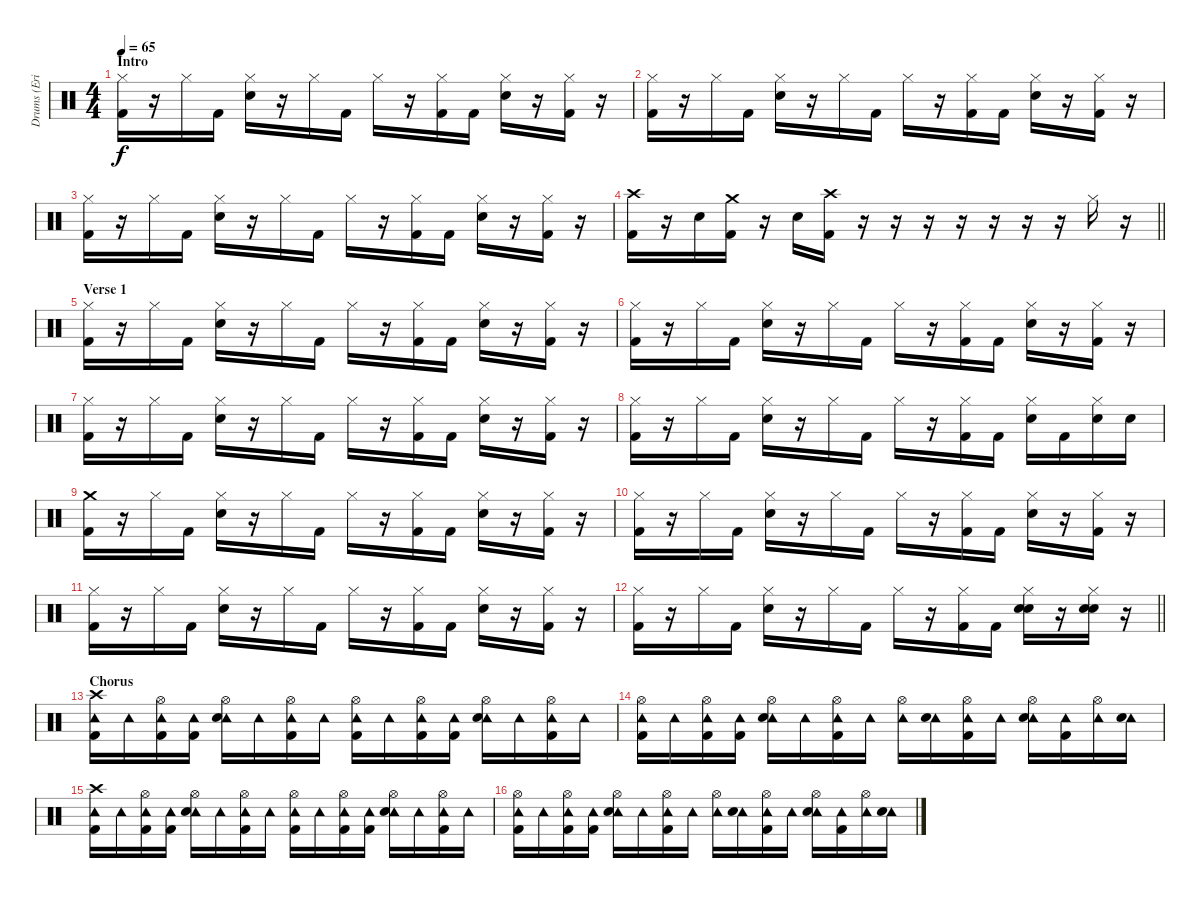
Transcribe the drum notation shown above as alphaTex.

\track ("Drums (Eric Kretz)" "Drums (Eri") {instrument percussion}
\staff {score}
\articulation defaults
\ts (4 4)
\section ("" "Intro")
\tempo 65
\clef neutral
\ks c
("Hi-Hat (closed)" "Kick (hit) 2").16{dy f} r.16 "Hi-Hat (closed)".16 "Kick (hit) 2".16 ("Hi-Hat (closed)" "Electric Snare (hit)").16 r.16 "Hi-Hat (closed)".16 "Kick (hit) 2".16 "Hi-Hat (closed)".16 r.16 ("Hi-Hat (closed)" "Kick (hit) 2").16 "Kick (hit) 2".16 ("Hi-Hat (closed)" "Electric Snare (hit)").16 r.16 ("Hi-Hat (closed)" "Kick (hit) 2").16 r.16 |
("Hi-Hat (closed)" "Kick (hit) 2").16 r.16 "Hi-Hat (closed)".16 "Kick (hit) 2".16 ("Hi-Hat (closed)" "Electric Snare (hit)").16 r.16 "Hi-Hat (closed)".16 "Kick (hit) 2".16 "Hi-Hat (closed)".16 r.16 ("Hi-Hat (closed)" "Kick (hit) 2").16 "Kick (hit) 2".16 ("Hi-Hat (closed)" "Electric Snare (hit)").16 r.16 ("Hi-Hat (closed)" "Kick (hit) 2").16 r.16 |
("Hi-Hat (closed)" "Kick (hit) 2").16 r.16 "Hi-Hat (closed)".16 "Kick (hit) 2".16 ("Hi-Hat (closed)" "Electric Snare (hit)").16 r.16 "Hi-Hat (closed)".16 "Kick (hit) 2".16 "Hi-Hat (closed)".16 r.16 ("Hi-Hat (closed)" "Kick (hit) 2").16 "Kick (hit) 2".16 ("Hi-Hat (closed)" "Electric Snare (hit)").16 r.16 ("Hi-Hat (closed)" "Kick (hit) 2").16 r.16 |
\barLineRight lightlight
("Crash high (hit)" "Kick (hit) 2").16 r.16 "Electric Snare (hit)".16 ("Crash medium (hit)" "Kick (hit) 2").16 r.16 "Electric Snare (hit)".16 ("Crash high (hit)" "Kick (hit) 2").16 r.16 r.16 r.16 r.16 r.16 r.16 r.16 "Hi-Hat (closed)".16 r.16 |
\section ("" "Verse 1")
("Hi-Hat (closed)" "Kick (hit) 2").16 r.16 "Hi-Hat (closed)".16 "Kick (hit) 2".16 ("Hi-Hat (closed)" "Electric Snare (hit)").16 r.16 "Hi-Hat (closed)".16 "Kick (hit) 2".16 "Hi-Hat (closed)".16 r.16 ("Hi-Hat (closed)" "Kick (hit) 2").16 "Kick (hit) 2".16 ("Hi-Hat (closed)" "Electric Snare (hit)").16 r.16 ("Hi-Hat (closed)" "Kick (hit) 2").16 r.16 |
("Hi-Hat (closed)" "Kick (hit) 2").16 r.16 "Hi-Hat (closed)".16 "Kick (hit) 2".16 ("Hi-Hat (closed)" "Electric Snare (hit)").16 r.16 "Hi-Hat (closed)".16 "Kick (hit) 2".16 "Hi-Hat (closed)".16 r.16 ("Hi-Hat (closed)" "Kick (hit) 2").16 "Kick (hit) 2".16 ("Hi-Hat (closed)" "Electric Snare (hit)").16 r.16 ("Hi-Hat (closed)" "Kick (hit) 2").16 r.16 |
("Hi-Hat (closed)" "Kick (hit) 2").16 r.16 "Hi-Hat (closed)".16 "Kick (hit) 2".16 ("Hi-Hat (closed)" "Electric Snare (hit)").16 r.16 "Hi-Hat (closed)".16 "Kick (hit) 2".16 "Hi-Hat (closed)".16 r.16 ("Hi-Hat (closed)" "Kick (hit) 2").16 "Kick (hit) 2".16 ("Hi-Hat (closed)" "Electric Snare (hit)").16 r.16 ("Hi-Hat (closed)" "Kick (hit) 2").16 r.16 |
("Hi-Hat (closed)" "Kick (hit) 2").16 r.16 "Hi-Hat (closed)".16 "Kick (hit) 2".16 ("Hi-Hat (closed)" "Electric Snare (hit)").16 r.16 "Hi-Hat (closed)".16 "Kick (hit) 2".16 "Hi-Hat (closed)".16 r.16 ("Hi-Hat (closed)" "Kick (hit) 2").16 "Kick (hit) 2".16 ("Hi-Hat (closed)" "Electric Snare (hit)").16 "Kick (hit) 2".16 ("Hi-Hat (closed)" "Electric Snare (hit)").16 "Electric Snare (hit)".16 |
("Crash medium (hit)" "Kick (hit) 2").16 r.16 "Hi-Hat (closed)".16 "Kick (hit) 2".16 ("Hi-Hat (closed)" "Electric Snare (hit)").16 r.16 "Hi-Hat (closed)".16 "Kick (hit) 2".16 "Hi-Hat (closed)".16 r.16 ("Hi-Hat (closed)" "Kick (hit) 2").16 "Kick (hit) 2".16 ("Hi-Hat (closed)" "Electric Snare (hit)").16 r.16 ("Hi-Hat (closed)" "Kick (hit) 2").16 r.16 |
("Hi-Hat (closed)" "Kick (hit) 2").16 r.16 "Hi-Hat (closed)".16 "Kick (hit) 2".16 ("Hi-Hat (closed)" "Electric Snare (hit)").16 r.16 "Hi-Hat (closed)".16 "Kick (hit) 2".16 "Hi-Hat (closed)".16 r.16 ("Hi-Hat (closed)" "Kick (hit) 2").16 "Kick (hit) 2".16 ("Hi-Hat (closed)" "Electric Snare (hit)").16 r.16 ("Hi-Hat (closed)" "Kick (hit) 2").16 r.16 |
("Hi-Hat (closed)" "Kick (hit) 2").16 r.16 "Hi-Hat (closed)".16 "Kick (hit) 2".16 ("Hi-Hat (closed)" "Electric Snare (hit)").16 r.16 "Hi-Hat (closed)".16 "Kick (hit) 2".16 "Hi-Hat (closed)".16 r.16 ("Hi-Hat (closed)" "Kick (hit) 2").16 "Kick (hit) 2".16 ("Hi-Hat (closed)" "Electric Snare (hit)").16 r.16 ("Hi-Hat (closed)" "Kick (hit) 2").16 r.16 |
\barLineRight lightlight
("Hi-Hat (closed)" "Kick (hit) 2").16 r.16 "Hi-Hat (closed)".16 "Kick (hit) 2".16 ("Hi-Hat (closed)" "Electric Snare (hit)").16 r.16 "Hi-Hat (closed)".16 "Kick (hit) 2".16 "Hi-Hat (closed)".16 r.16 ("Hi-Hat (closed)" "Kick (hit) 2").16 "Kick (hit) 2".16 ("Hi-Hat (closed)" "Snare (hit) 2" "Electric Snare (hit)").16 r.16 ("Hi-Hat (closed)" "Snare (hit) 2" "Electric Snare (hit)").16 r.16 |
\section ("" "Chorus")
("Crash high (hit)" "Tambourine (hit)" "Kick (hit) 2").16 "Tambourine (hit)".16 ("Hi-Hat (open)" "Tambourine (hit)" "Kick (hit) 2").16 ("Tambourine (hit)" "Kick (hit) 2").16 ("Hi-Hat (open)" "Tambourine (hit)" "Electric Snare (hit)").16 "Tambourine (hit)".16 ("Hi-Hat (open)" "Tambourine (hit)" "Kick (hit) 2").16 "Tambourine (hit)".16 ("Hi-Hat (open)" "Tambourine (hit)" "Kick (hit) 2").16 "Tambourine (hit)".16 ("Hi-Hat (open)" "Tambourine (hit)" "Kick (hit) 2").16 ("Tambourine (hit)" "Kick (hit) 2").16 ("Hi-Hat (open)" "Tambourine (hit)" "Electric Snare (hit)").16 "Tambourine (hit)".16 ("Hi-Hat (open)" "Tambourine (hit)" "Kick (hit) 2").16 "Tambourine (hit)".16 |
("Hi-Hat (open)" "Tambourine (hit)" "Kick (hit) 2").16 "Tambourine (hit)".16 ("Hi-Hat (open)" "Tambourine (hit)" "Kick (hit) 2").16 ("Tambourine (hit)" "Kick (hit) 2").16 ("Hi-Hat (open)" "Tambourine (hit)" "Electric Snare (hit)").16 "Tambourine (hit)".16 ("Hi-Hat (open)" "Tambourine (hit)" "Kick (hit) 2").16 "Tambourine (hit)".16 ("Hi-Hat (open)" "Tambourine (hit)").16 ("Tambourine (hit)" "Electric Snare (hit)").16 ("Hi-Hat (open)" "Tambourine (hit)" "Kick (hit) 2").16 "Tambourine (hit)".16 ("Hi-Hat (open)" "Tambourine (hit)" "Electric Snare (hit)").16 ("Tambourine (hit)" "Kick (hit) 2").16 ("Hi-Hat (open)" "Tambourine (hit)").16 ("Tambourine (hit)" "Electric Snare (hit)").16 |
("Crash high (hit)" "Tambourine (hit)" "Kick (hit) 2").16 "Tambourine (hit)".16 ("Hi-Hat (open)" "Tambourine (hit)" "Kick (hit) 2").16 ("Tambourine (hit)" "Kick (hit) 2").16 ("Hi-Hat (open)" "Tambourine (hit)" "Electric Snare (hit)").16 "Tambourine (hit)".16 ("Hi-Hat (open)" "Tambourine (hit)" "Kick (hit) 2").16 "Tambourine (hit)".16 ("Hi-Hat (open)" "Tambourine (hit)" "Kick (hit) 2").16 "Tambourine (hit)".16 ("Hi-Hat (open)" "Tambourine (hit)" "Kick (hit) 2").16 ("Tambourine (hit)" "Kick (hit) 2").16 ("Hi-Hat (open)" "Tambourine (hit)" "Electric Snare (hit)").16 "Tambourine (hit)".16 ("Hi-Hat (open)" "Tambourine (hit)" "Kick (hit) 2").16 "Tambourine (hit)".16 |
("Hi-Hat (open)" "Tambourine (hit)" "Kick (hit) 2").16 "Tambourine (hit)".16 ("Hi-Hat (open)" "Tambourine (hit)" "Kick (hit) 2").16 ("Tambourine (hit)" "Kick (hit) 2").16 ("Hi-Hat (open)" "Tambourine (hit)" "Electric Snare (hit)").16 "Tambourine (hit)".16 ("Hi-Hat (open)" "Tambourine (hit)" "Kick (hit) 2").16 "Tambourine (hit)".16 ("Hi-Hat (open)" "Tambourine (hit)").16 ("Tambourine (hit)" "Electric Snare (hit)").16 ("Hi-Hat (open)" "Tambourine (hit)" "Kick (hit) 2").16 "Tambourine (hit)".16 ("Hi-Hat (open)" "Tambourine (hit)" "Electric Snare (hit)").16 ("Tambourine (hit)" "Kick (hit) 2").16 ("Hi-Hat (open)" "Tambourine (hit)").16 ("Tambourine (hit)" "Electric Snare (hit)").16
